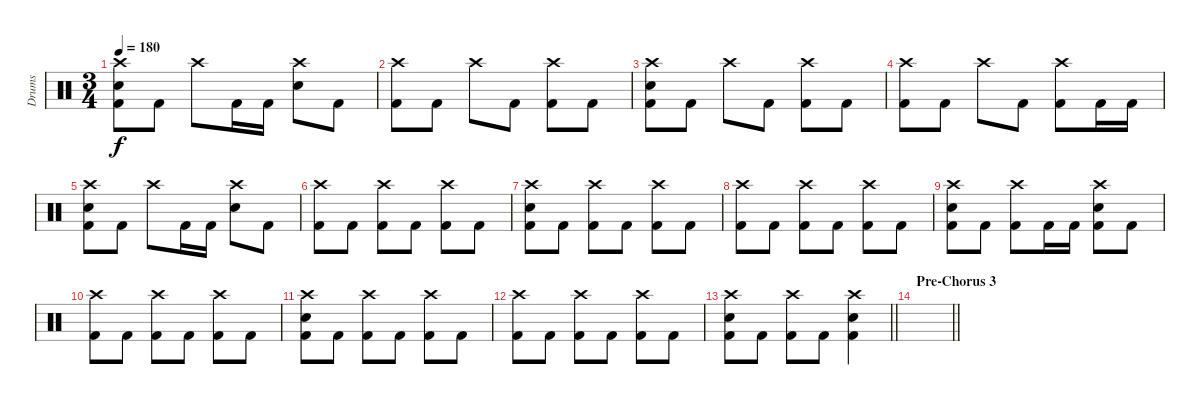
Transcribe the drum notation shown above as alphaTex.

\track ("Drums" "Drums") {instrument percussion}
\staff {score}
\articulation defaults
\ts (3 4)
\tempo 180
\clef neutral
\ks c
("Crash high (hit)" "Electric Snare (hit)" "Kick (hit) 2").8{dy f} "Kick (hit) 2".8 "Crash high (hit)".8 "Kick (hit) 2".16 "Kick (hit) 2".16 ("Crash high (hit)" "Electric Snare (hit)").8 "Kick (hit) 2".8 |
("Crash high (hit)" "Kick (hit) 2").8 "Kick (hit) 2".8 "Crash high (hit)".8 "Kick (hit) 2".8 ("Crash high (hit)" "Kick (hit) 2").8 "Kick (hit) 2".8 |
("Crash high (hit)" "Electric Snare (hit)" "Kick (hit) 2").8 "Kick (hit) 2".8 "Crash high (hit)".8 "Kick (hit) 2".8 ("Crash high (hit)" "Kick (hit) 2").8 "Kick (hit) 2".8 |
("Crash high (hit)" "Kick (hit) 2").8 "Kick (hit) 2".8 "Crash high (hit)".8 "Kick (hit) 2".8 ("Crash high (hit)" "Kick (hit) 2").8 "Kick (hit) 2".16 "Kick (hit) 2".16 |
("Crash high (hit)" "Electric Snare (hit)" "Kick (hit) 2").8 "Kick (hit) 2".8 "Crash high (hit)".8 "Kick (hit) 2".16 "Kick (hit) 2".16 ("Crash high (hit)" "Electric Snare (hit)").8 "Kick (hit) 2".8 |
("Crash high (hit)" "Kick (hit) 2").8 "Kick (hit) 2".8 ("Crash high (hit)" "Kick (hit) 2").8 "Kick (hit) 2".8 ("Crash high (hit)" "Kick (hit) 2").8 "Kick (hit) 2".8 |
("Crash high (hit)" "Electric Snare (hit)" "Kick (hit) 2").8 "Kick (hit) 2".8 ("Crash high (hit)" "Kick (hit) 2").8 "Kick (hit) 2".8 ("Crash high (hit)" "Kick (hit) 2").8 "Kick (hit) 2".8 |
("Crash high (hit)" "Kick (hit) 2").8 "Kick (hit) 2".8 ("Crash high (hit)" "Kick (hit) 2").8 "Kick (hit) 2".8 ("Crash high (hit)" "Kick (hit) 2").8 "Kick (hit) 2".8 |
("Crash high (hit)" "Electric Snare (hit)" "Kick (hit) 2").8 "Kick (hit) 2".8 ("Crash high (hit)" "Kick (hit) 2").8 "Kick (hit) 2".16 "Kick (hit) 2".16 ("Crash high (hit)" "Electric Snare (hit)" "Kick (hit) 2").8 "Kick (hit) 2".8 |
("Crash high (hit)" "Kick (hit) 2").8 "Kick (hit) 2".8 ("Crash high (hit)" "Kick (hit) 2").8 "Kick (hit) 2".8 ("Crash high (hit)" "Kick (hit) 2").8 "Kick (hit) 2".8 |
("Crash high (hit)" "Electric Snare (hit)" "Kick (hit) 2").8 "Kick (hit) 2".8 ("Crash high (hit)" "Kick (hit) 2").8 "Kick (hit) 2".8 ("Crash high (hit)" "Kick (hit) 2").8 "Kick (hit) 2".8 |
("Crash high (hit)" "Kick (hit) 2").8 "Kick (hit) 2".8 ("Crash high (hit)" "Kick (hit) 2").8 "Kick (hit) 2".8 ("Crash high (hit)" "Kick (hit) 2").8 "Kick (hit) 2".8 |
\barLineRight lightlight
("Crash high (hit)" "Electric Snare (hit)" "Kick (hit) 2").8 "Kick (hit) 2".8 ("Crash high (hit)" "Kick (hit) 2").8 "Kick (hit) 2".8 ("Crash high (hit)" "Electric Snare (hit)" "Kick (hit) 2").4 |
\section ("" "Pre-Chorus 3")
\barLineRight lightlight
